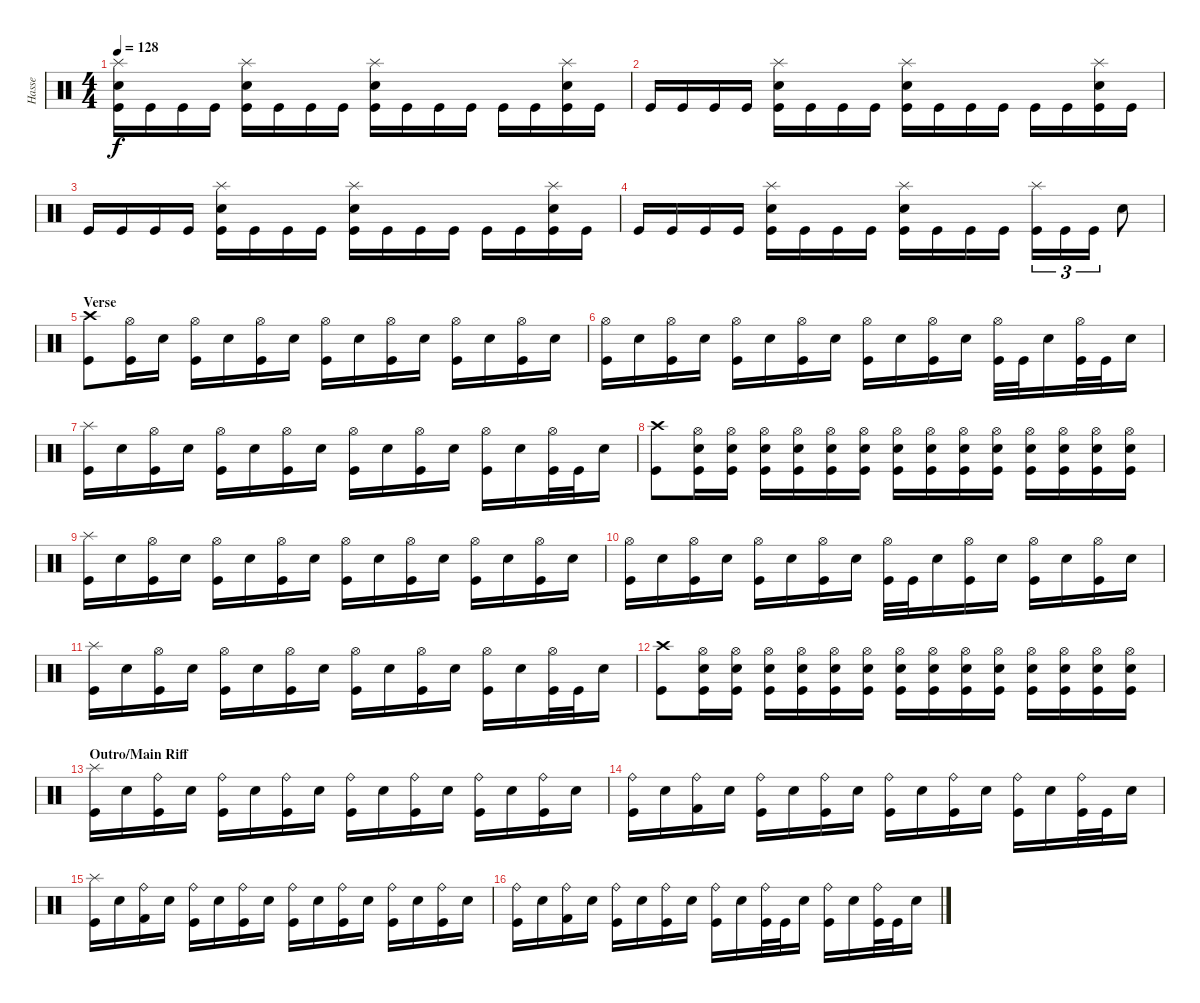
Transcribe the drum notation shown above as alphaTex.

\track ("Hasse" "Hasse") {instrument percussion}
\staff {score}
\articulation defaults
\ts (4 4)
\tempo 128
\clef neutral
\ks c
("Splash (hit)" "Snare (hit) 2" "Kick (hit)").16{dy f} "Kick (hit)".16 "Kick (hit)".16 "Kick (hit)".16 ("Splash (hit)" "Snare (hit) 2" "Kick (hit)").16 "Kick (hit)".16 "Kick (hit)".16 "Kick (hit)".16 ("Splash (hit)" "Snare (hit) 2" "Kick (hit)").16 "Kick (hit)".16 "Kick (hit)".16 "Kick (hit)".16 "Kick (hit)".16 "Kick (hit)".16 ("Splash (hit)" "Snare (hit) 2" "Kick (hit)").16 "Kick (hit)".16 |
"Kick (hit)".16 "Kick (hit)".16 "Kick (hit)".16 "Kick (hit)".16 ("Splash (hit)" "Snare (hit) 2" "Kick (hit)").16 "Kick (hit)".16 "Kick (hit)".16 "Kick (hit)".16 ("Splash (hit)" "Snare (hit) 2" "Kick (hit)").16 "Kick (hit)".16 "Kick (hit)".16 "Kick (hit)".16 "Kick (hit)".16 "Kick (hit)".16 ("Splash (hit)" "Snare (hit) 2" "Kick (hit)").16 "Kick (hit)".16 |
"Kick (hit)".16 "Kick (hit)".16 "Kick (hit)".16 "Kick (hit)".16 ("Splash (hit)" "Snare (hit) 2" "Kick (hit)").16 "Kick (hit)".16 "Kick (hit)".16 "Kick (hit)".16 ("Splash (hit)" "Snare (hit) 2" "Kick (hit)").16 "Kick (hit)".16 "Kick (hit)".16 "Kick (hit)".16 "Kick (hit)".16 "Kick (hit)".16 ("Splash (hit)" "Snare (hit) 2" "Kick (hit)").16 "Kick (hit)".16 |
"Kick (hit)".16 "Kick (hit)".16 "Kick (hit)".16 "Kick (hit)".16 ("Splash (hit)" "Snare (hit) 2" "Kick (hit)").16 "Kick (hit)".16 "Kick (hit)".16 "Kick (hit)".16 ("Splash (hit)" "Snare (hit) 2" "Kick (hit)").16 "Kick (hit)".16 "Kick (hit)".16 "Kick (hit)".16 ("Splash (hit)" "Kick (hit)").16{tu (3 2)} "Kick (hit)".16{tu (3 2)} "Kick (hit)".16{tu (3 2)} "Electric Snare (hit)".8 |
\section ("" "Verse")
("Crash high (hit)" "Kick (hit)").8 ("Hi-Hat (open)" "Kick (hit)").16 "Snare (hit) 2".16 ("Hi-Hat (open)" "Kick (hit)").16 "Snare (hit) 2".16 ("Hi-Hat (open)" "Kick (hit)").16 "Snare (hit) 2".16 ("Hi-Hat (open)" "Kick (hit)").16 "Snare (hit) 2".16 ("Hi-Hat (open)" "Kick (hit)").16 "Snare (hit) 2".16 ("Hi-Hat (open)" "Kick (hit)").16 "Snare (hit) 2".16 ("Hi-Hat (open)" "Kick (hit)").16 "Snare (hit) 2".16 |
("Hi-Hat (open)" "Kick (hit)").16 "Snare (hit) 2".16 ("Hi-Hat (open)" "Kick (hit)").16 "Snare (hit) 2".16 ("Hi-Hat (open)" "Kick (hit)").16 "Snare (hit) 2".16 ("Hi-Hat (open)" "Kick (hit)").16 "Snare (hit) 2".16 ("Hi-Hat (open)" "Kick (hit)").16 "Snare (hit) 2".16 ("Hi-Hat (open)" "Kick (hit)").16 "Snare (hit) 2".16 ("Hi-Hat (open)" "Kick (hit)").32 "Kick (hit)".32 "Snare (hit) 2".16 ("Hi-Hat (open)" "Kick (hit)").32 "Kick (hit)".32 "Snare (hit) 2".16 |
("Splash (hit)" "Kick (hit)").16 "Snare (hit) 2".16 ("Hi-Hat (open)" "Kick (hit)").16 "Snare (hit) 2".16 ("Hi-Hat (open)" "Kick (hit)").16 "Snare (hit) 2".16 ("Hi-Hat (open)" "Kick (hit)").16 "Snare (hit) 2".16 ("Hi-Hat (open)" "Kick (hit)").16 "Snare (hit) 2".16 ("Hi-Hat (open)" "Kick (hit)").16 "Snare (hit) 2".16 ("Hi-Hat (open)" "Kick (hit)").16 "Snare (hit) 2".16 ("Hi-Hat (open)" "Kick (hit)").32 "Kick (hit)".32 "Snare (hit) 2".16 |
("Crash high (hit)" "Kick (hit)").8 ("Hi-Hat (open)" "Snare (hit) 2" "Kick (hit)").16 ("Hi-Hat (open)" "Snare (hit) 2" "Kick (hit)").16 ("Hi-Hat (open)" "Snare (hit) 2" "Kick (hit)").16 ("Hi-Hat (open)" "Snare (hit) 2" "Kick (hit)").16 ("Hi-Hat (open)" "Snare (hit) 2" "Kick (hit)").16 ("Hi-Hat (open)" "Snare (hit) 2" "Kick (hit)").16 ("Hi-Hat (open)" "Snare (hit) 2" "Kick (hit)").16 ("Hi-Hat (open)" "Snare (hit) 2" "Kick (hit)").16 ("Hi-Hat (open)" "Snare (hit) 2" "Kick (hit)").16 ("Hi-Hat (open)" "Snare (hit) 2" "Kick (hit)").16 ("Hi-Hat (open)" "Snare (hit) 2" "Kick (hit)").16 ("Hi-Hat (open)" "Snare (hit) 2" "Kick (hit)").16 ("Hi-Hat (open)" "Snare (hit) 2" "Kick (hit)").16 ("Hi-Hat (open)" "Snare (hit) 2" "Kick (hit)").16 |
("Splash (hit)" "Kick (hit)").16 "Snare (hit) 2".16 ("Hi-Hat (open)" "Kick (hit)").16 "Snare (hit) 2".16 ("Hi-Hat (open)" "Kick (hit)").16 "Snare (hit) 2".16 ("Hi-Hat (open)" "Kick (hit)").16 "Snare (hit) 2".16 ("Hi-Hat (open)" "Kick (hit)").16 "Snare (hit) 2".16 ("Hi-Hat (open)" "Kick (hit)").16 "Snare (hit) 2".16 ("Hi-Hat (open)" "Kick (hit)").16 "Snare (hit) 2".16 ("Hi-Hat (open)" "Kick (hit)").16 "Snare (hit) 2".16 |
("Hi-Hat (open)" "Kick (hit)").16 "Snare (hit) 2".16 ("Hi-Hat (open)" "Kick (hit)").16 "Snare (hit) 2".16 ("Hi-Hat (open)" "Kick (hit)").16 "Snare (hit) 2".16 ("Hi-Hat (open)" "Kick (hit)").16 "Snare (hit) 2".16 ("Hi-Hat (open)" "Kick (hit)").32 "Kick (hit)".32 "Snare (hit) 2".16 ("Hi-Hat (open)" "Kick (hit)").16 "Snare (hit) 2".16 ("Hi-Hat (open)" "Kick (hit)").16 "Snare (hit) 2".16 ("Hi-Hat (open)" "Kick (hit)").16 "Snare (hit) 2".16 |
("Splash (hit)" "Kick (hit)").16 "Snare (hit) 2".16 ("Hi-Hat (open)" "Kick (hit)").16 "Snare (hit) 2".16 ("Hi-Hat (open)" "Kick (hit)").16 "Snare (hit) 2".16 ("Hi-Hat (open)" "Kick (hit)").16 "Snare (hit) 2".16 ("Hi-Hat (open)" "Kick (hit)").16 "Snare (hit) 2".16 ("Hi-Hat (open)" "Kick (hit)").16 "Snare (hit) 2".16 ("Hi-Hat (open)" "Kick (hit)").16 "Snare (hit) 2".16 ("Hi-Hat (open)" "Kick (hit)").32 "Kick (hit)".32 "Snare (hit) 2".16 |
("Crash high (hit)" "Kick (hit)").8 ("Hi-Hat (open)" "Snare (hit) 2" "Kick (hit)").16 ("Hi-Hat (open)" "Snare (hit) 2" "Kick (hit)").16 ("Hi-Hat (open)" "Snare (hit) 2" "Kick (hit)").16 ("Hi-Hat (open)" "Snare (hit) 2" "Kick (hit)").16 ("Hi-Hat (open)" "Snare (hit) 2" "Kick (hit)").16 ("Hi-Hat (open)" "Snare (hit) 2" "Kick (hit)").16 ("Hi-Hat (open)" "Snare (hit) 2" "Kick (hit)").16 ("Hi-Hat (open)" "Snare (hit) 2" "Kick (hit)").16 ("Hi-Hat (open)" "Snare (hit) 2" "Kick (hit)").16 ("Hi-Hat (open)" "Snare (hit) 2" "Kick (hit)").16 ("Hi-Hat (open)" "Snare (hit) 2" "Kick (hit)").16 ("Hi-Hat (open)" "Snare (hit) 2" "Kick (hit)").16 ("Hi-Hat (open)" "Snare (hit) 2" "Kick (hit)").16 ("Hi-Hat (open)" "Snare (hit) 2" "Kick (hit)").16 |
\section ("" "Outro/Main Riff")
("Splash (hit)" "Kick (hit)").16 "Snare (hit) 2".16 ("Ride (bell)" "Kick (hit)").16 "Snare (hit) 2".16 ("Ride (bell)" "Kick (hit)").16 "Snare (hit) 2".16 ("Ride (bell)" "Kick (hit)").16 "Snare (hit) 2".16 ("Ride (bell)" "Kick (hit)").16 "Snare (hit) 2".16 ("Ride (bell)" "Kick (hit)").16 "Snare (hit) 2".16 ("Ride (bell)" "Kick (hit)").16 "Snare (hit) 2".16 ("Ride (bell)" "Kick (hit)").16 "Snare (hit) 2".16 |
("Ride (bell)" "Kick (hit)").16 "Snare (hit) 2".16 ("Ride (bell)" "Kick (hit) 2").16 "Snare (hit) 2".16 ("Ride (bell)" "Kick (hit)").16 "Snare (hit) 2".16 ("Ride (bell)" "Kick (hit)").16 "Snare (hit) 2".16 ("Ride (bell)" "Kick (hit)").16 "Snare (hit) 2".16 ("Ride (bell)" "Kick (hit)").16 "Snare (hit) 2".16 ("Ride (bell)" "Kick (hit)").16 "Snare (hit) 2".16 ("Ride (bell)" "Kick (hit)").32 "Kick (hit)".32 "Snare (hit) 2".16 |
("Splash (hit)" "Kick (hit)").16 "Snare (hit) 2".16 ("Ride (bell)" "Kick (hit) 2").16 "Snare (hit) 2".16 ("Ride (bell)" "Kick (hit)").16 "Snare (hit) 2".16 ("Ride (bell)" "Kick (hit)").16 "Snare (hit) 2".16 ("Ride (bell)" "Kick (hit)").16 "Snare (hit) 2".16 ("Ride (bell)" "Kick (hit)").16 "Snare (hit) 2".16 ("Ride (bell)" "Kick (hit)").16 "Snare (hit) 2".16 ("Ride (bell)" "Kick (hit)").16 "Snare (hit) 2".16 |
("Ride (bell)" "Kick (hit)").16 "Snare (hit) 2".16 ("Ride (bell)" "Kick (hit) 2").16 "Snare (hit) 2".16 ("Ride (bell)" "Kick (hit)").16 "Snare (hit) 2".16 ("Ride (bell)" "Kick (hit)").16 "Snare (hit) 2".16 ("Ride (bell)" "Kick (hit)").16 "Snare (hit) 2".16 ("Ride (bell)" "Kick (hit)").32 "Kick (hit)".32 "Snare (hit) 2".16 ("Ride (bell)" "Kick (hit)").16 "Snare (hit) 2".16 ("Ride (bell)" "Kick (hit)").32 "Kick (hit)".32 "Snare (hit) 2".16
